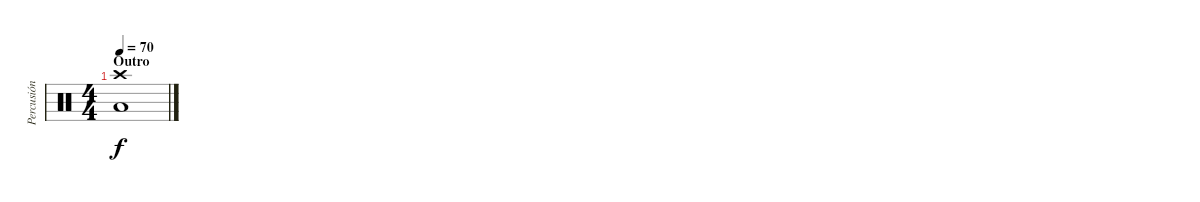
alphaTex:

\track ("Percusión" "Percusión") {instrument percussion}
\staff {score}
\articulation defaults
\ts (4 4)
\section ("" "Outro")
\tempo 70
\clef neutral
\ks c
("Low Tom (hit)" "Crash high (hit)").1{dy f}
